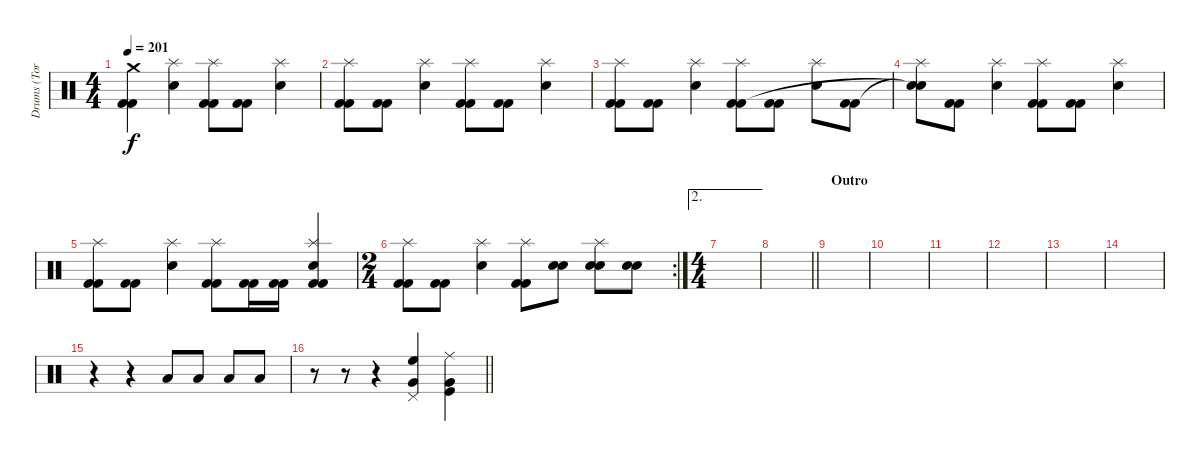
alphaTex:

\track ("Drums (Tora)" "Drums (Tor") {instrument percussion}
\staff {score}
\articulation defaults
\ts (4 4)
\tempo 201
\clef neutral
\ks c
("Crash medium (hit)" "Kick (hit) 2" "Kick (hit) 2").4{dy f} ("Splash (hit)" "Snare (hit) 2").4 ("Splash (hit)" "Kick (hit) 2" "Kick (hit) 2").8 ("Kick (hit) 2" "Kick (hit) 2").8 ("Splash (hit)" "Snare (hit) 2").4 |
("Splash (hit)" "Kick (hit) 2" "Kick (hit) 2").8 ("Kick (hit) 2" "Kick (hit) 2").8 ("Splash (hit)" "Snare (hit) 2").4 ("Splash (hit)" "Kick (hit) 2" "Kick (hit) 2").8 ("Kick (hit) 2" "Kick (hit) 2").8 ("Splash (hit)" "Snare (hit) 2").4 |
("Splash (hit)" "Kick (hit) 2" "Kick (hit) 2").8 ("Kick (hit) 2" "Kick (hit) 2").8 ("Splash (hit)" "Snare (hit) 2").4 ("Splash (hit)" "Kick (hit) 2" "Kick (hit) 2").8 ("Kick (hit) 2" "Kick (hit) 2").8 ("Splash (hit)" "Snare (hit) 2").8 ("Kick (hit) 2" "Kick (hit) 2").8 |
("Splash (hit)" "Snare (hit)"{t} "Snare (hit)"{t}).8 ("Kick (hit) 2" "Kick (hit) 2").8 ("Splash (hit)" "Snare (hit) 2").4 ("Splash (hit)" "Kick (hit) 2" "Kick (hit) 2").8 ("Kick (hit) 2" "Kick (hit) 2").8 ("Splash (hit)" "Snare (hit) 2").4 |
("Splash (hit)" "Kick (hit) 2" "Kick (hit) 2").8 ("Kick (hit) 2" "Kick (hit) 2").8 ("Splash (hit)" "Snare (hit) 2").4 ("Splash (hit)" "Kick (hit) 2" "Kick (hit) 2").8 ("Kick (hit) 2" "Kick (hit) 2").16 ("Kick (hit) 2" "Kick (hit) 2").16 ("Splash (hit)" "Snare (hit) 2" "Kick (hit) 2" "Kick (hit) 2").4 |
\rc 2
\ts (2 4)
("Splash (hit)" "Kick (hit) 2" "Kick (hit) 2").8 ("Kick (hit) 2" "Kick (hit) 2").8 ("Splash (hit)" "Snare (hit) 2").4 ("Splash (hit)" "Kick (hit) 2" "Kick (hit) 2").8 ("Snare (hit) 2" "Snare (hit) 2").8 ("Splash (hit)" "Snare (hit) 2" "Snare (hit) 2").8 ("Snare (hit) 2" "Snare (hit) 2").8 |
\ae 2
\ts (4 4)
|
\barLineRight lightlight
|
\section ("" "Outro")
|
|
|
|
|
|
r.4 r.4 "Low Floor Tom (hit)".8 "Low Floor Tom (hit)".8 "Low Floor Tom (hit)".8 "Low Floor Tom (hit)".8 |
\barLineRight lightlight
r.8 r.8 r.4 ("Pedal Hi-Hat (hit)" "High Floor Tom (hit)" "Very Low Tom (hit)").4 ("Kick (hit)" "Ride (middle)" "Very Low Tom (hit)").4
